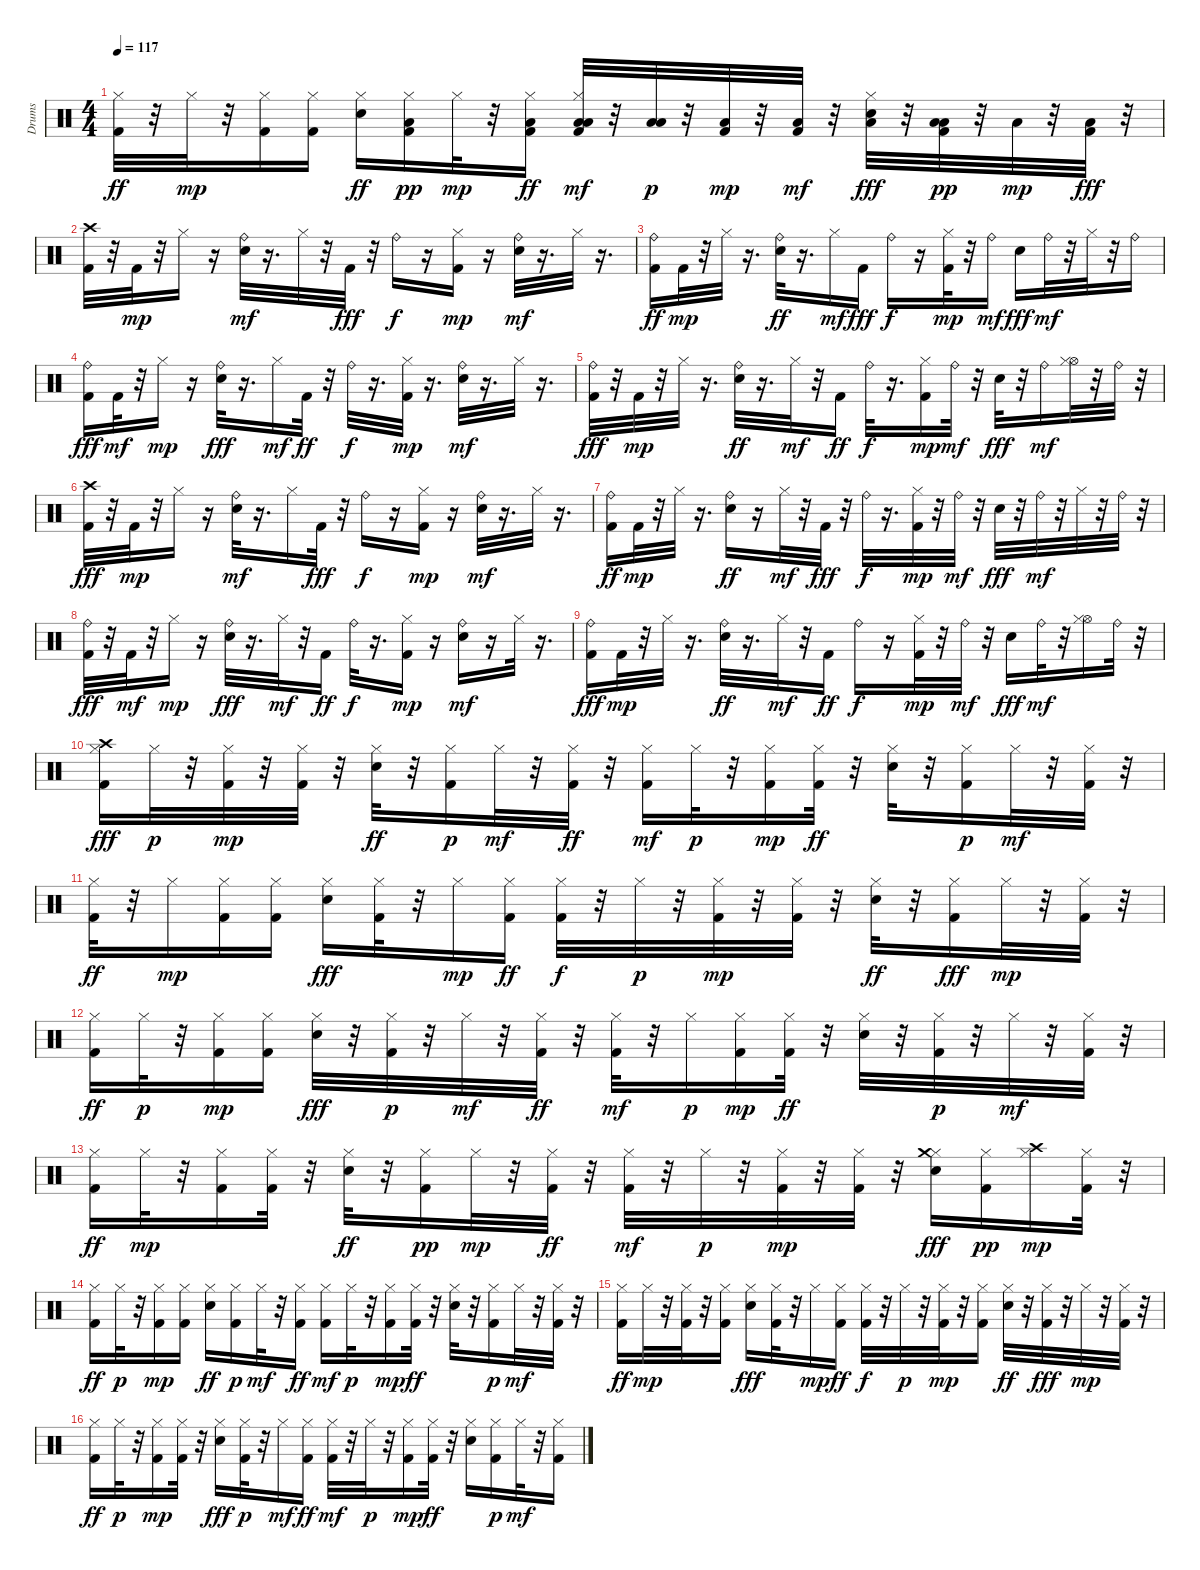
\track ("Drums" "Drums") {instrument percussion}
\staff {score}
\articulation defaults
\ts (4 4)
\tempo 117
\clef neutral
\ks c
("Kick (hit) 2" "Hi-Hat (closed)").32{dy ff} r.32 "Hi-Hat (closed)".32{dy mp} r.32 ("Kick (hit) 2" "Hi-Hat (closed)").16 ("Kick (hit) 2" "Hi-Hat (closed)").16 ("Hi-Hat (closed)" "Snare (hit) 2").16{dy ff} ("Low Tom (hit)" "Kick (hit) 2" "Hi-Hat (closed)").16{dy pp} "Hi-Hat (closed)".32{dy mp} r.32 ("Low Tom (hit)" "Kick (hit) 2" "Hi-Hat (closed)").16{dy ff} ("Kick (hit) 2" "Low Tom (hit)" "Low Tom (hit)" "Hi-Hat (closed)").32{dy mf} r.32 ("Low Tom (hit)" "Low Tom (hit)").32{dy p} r.32 ("Low Floor Tom (hit)" "Kick (hit) 2").32{dy mp} r.32 ("Low Floor Tom (hit)" "Kick (hit) 2").32{dy mf} r.32 ("Hi-Hat (closed)" "Low Floor Tom (hit)" "Snare (hit) 2").32{dy fff} r.32 ("Kick (hit) 2" "Low Floor Tom (hit)" "Low Floor Tom (hit)").32{dy pp} r.32 "Low Floor Tom (hit)".32{dy mp} r.32 ("Low Floor Tom (hit)" "Kick (hit) 2").32{dy fff} r.32 |
("Kick (hit) 2" "Crash high (hit)").32 r.32 "Kick (hit) 2".32{dy mp} r.32 "Hi-Hat (closed)".16 r.16 ("Snare (hit) 2" "Ride (bell)").32{dy mf} r.16{d} "Hi-Hat (closed)".32 r.32 "Kick (hit) 2".32{dy fff} r.32 "Ride (bell)".16{dy f} r.16 ("Kick (hit) 2" "Hi-Hat (closed)").16{dy mp} r.16 ("Snare (hit) 2" "Ride (bell)").32{dy mf} r.16{d} "Hi-Hat (closed)".32 r.16{d} |
("Kick (hit) 2" "Ride (bell)").16{dy ff} "Kick (hit) 2".32{dy mp} r.32 "Hi-Hat (closed)".32 r.16{d} ("Ride (bell)" "Snare (hit) 2").32{dy ff} r.16{d} "Hi-Hat (closed)".16{dy mf} "Kick (hit) 2".16{dy fff} "Ride (bell)".16{dy f} r.16 ("Kick (hit) 2" "Hi-Hat (closed)").32{dy mp} r.32 "Ride (bell)".16{dy mf} "Snare (hit) 2".16{dy fff} "Ride (bell)".32{dy mf} r.32 "Hi-Hat (closed)".32 r.32 "Ride (bell)".16 |
("Kick (hit) 2" "Ride (bell)").16{dy fff} "Kick (hit) 2".32{dy mf} r.32 "Hi-Hat (closed)".16{dy mp} r.16 ("Ride (bell)" "Snare (hit) 2").32{dy fff} r.16{d} "Hi-Hat (closed)".16{dy mf} "Kick (hit) 2".32{dy ff} r.32 "Ride (bell)".32{dy f} r.16{d} ("Kick (hit) 2" "Hi-Hat (closed)").32{dy mp} r.16{d} ("Snare (hit) 2" "Ride (bell)").32{dy mf} r.16{d} "Hi-Hat (closed)".32 r.16{d} |
("Kick (hit) 2" "Ride (bell)").32{dy fff} r.32 "Kick (hit) 2".32{dy mp} r.32 "Hi-Hat (closed)".32 r.16{d} ("Ride (bell)" "Snare (hit) 2").32{dy ff} r.16{d} "Hi-Hat (closed)".32{dy mf} r.32 "Kick (hit) 2".16{dy ff} "Ride (bell)".32{dy f} r.16{d} ("Kick (hit) 2" "Hi-Hat (closed)").16{dy mp} "Ride (bell)".32{dy mf} r.32 "Snare (hit) 2".32{dy fff} r.32 "Ride (bell)".16{dy mf} ("Hi-Hat (open)" "Hi-Hat (closed)").32 r.32 "Ride (bell)".32 r.32 |
("Kick (hit) 2" "Crash high (hit)").32{dy fff} r.32 "Kick (hit) 2".32{dy mp} r.32 "Hi-Hat (closed)".16 r.16 ("Snare (hit) 2" "Ride (bell)").32{dy mf} r.16{d} "Hi-Hat (closed)".16 "Kick (hit) 2".32{dy fff} r.32 "Ride (bell)".16{dy f} r.16 ("Kick (hit) 2" "Hi-Hat (closed)").16{dy mp} r.16 ("Snare (hit) 2" "Ride (bell)").32{dy mf} r.16{d} "Hi-Hat (closed)".32 r.16{d} |
("Kick (hit) 2" "Ride (bell)").16{dy ff} "Kick (hit) 2".32{dy mp} r.32 "Hi-Hat (closed)".32 r.16{d} ("Ride (bell)" "Snare (hit) 2").16{dy ff} r.16 "Hi-Hat (closed)".32{dy mf} r.32 "Kick (hit) 2".32{dy fff} r.32 "Ride (bell)".32{dy f} r.16{d} ("Kick (hit) 2" "Hi-Hat (closed)").32{dy mp} r.32 "Ride (bell)".32{dy mf} r.32 "Snare (hit) 2".32{dy fff} r.32 "Ride (bell)".32{dy mf} r.32 "Hi-Hat (closed)".32 r.32 "Ride (bell)".32 r.32 |
("Kick (hit) 2" "Ride (bell)").32{dy fff} r.32 "Kick (hit) 2".32{dy mf} r.32 "Hi-Hat (closed)".16{dy mp} r.16 ("Ride (bell)" "Snare (hit) 2").32{dy fff} r.16{d} "Hi-Hat (closed)".32{dy mf} r.32 "Kick (hit) 2".16{dy ff} "Ride (bell)".32{dy f} r.16{d} ("Kick (hit) 2" "Hi-Hat (closed)").16{dy mp} r.16 ("Snare (hit) 2" "Ride (bell)").16{dy mf} r.16 "Hi-Hat (closed)".32 r.16{d} |
("Kick (hit) 2" "Ride (bell)").16{dy fff} "Kick (hit) 2".32{dy mp} r.32 "Hi-Hat (closed)".32 r.16{d} ("Ride (bell)" "Snare (hit) 2").32{dy ff} r.16{d} "Hi-Hat (closed)".32{dy mf} r.32 "Kick (hit) 2".16{dy ff} "Ride (bell)".16{dy f} r.16 ("Kick (hit) 2" "Hi-Hat (closed)").32{dy mp} r.32 "Ride (bell)".32{dy mf} r.32 "Snare (hit) 2".16{dy fff} "Ride (bell)".32{dy mf} r.32 ("Hi-Hat (open)" "Hi-Hat (closed)").16 "Ride (bell)".32 r.32 |
("Kick (hit) 2" "Hi-Hat (closed)" "Crash high (hit)").16{dy fff} "Hi-Hat (closed)".32{dy p} r.32 ("Kick (hit) 2" "Hi-Hat (closed)").32{dy mp} r.32 ("Kick (hit) 2" "Hi-Hat (closed)").32 r.32 ("Hi-Hat (closed)" "Snare (hit) 2").32{dy ff} r.32 ("Kick (hit) 2" "Hi-Hat (closed)").16{dy p} "Hi-Hat (closed)".32{dy mf} r.32 ("Kick (hit) 2" "Hi-Hat (closed)").32{dy ff} r.32 ("Kick (hit) 2" "Hi-Hat (closed)").16{dy mf} "Hi-Hat (closed)".32{dy p} r.32 ("Kick (hit) 2" "Hi-Hat (closed)").16{dy mp} ("Kick (hit) 2" "Hi-Hat (closed)").32{dy ff} r.32 ("Hi-Hat (closed)" "Snare (hit) 2").32 r.32 ("Kick (hit) 2" "Hi-Hat (closed)").16{dy p} "Hi-Hat (closed)".32{dy mf} r.32 ("Kick (hit) 2" "Hi-Hat (closed)").32 r.32 |
("Kick (hit) 2" "Hi-Hat (closed)").32{dy ff} r.32 "Hi-Hat (closed)".16{dy mp} ("Kick (hit) 2" "Hi-Hat (closed)").16 ("Kick (hit) 2" "Hi-Hat (closed)").16 ("Hi-Hat (closed)" "Snare (hit) 2").16{dy fff} ("Hi-Hat (closed)" "Kick (hit) 2").32 r.32 "Hi-Hat (closed)".16{dy mp} ("Kick (hit) 2" "Hi-Hat (closed)").16{dy ff} ("Hi-Hat (closed)" "Kick (hit) 2").32{dy f} r.32 "Hi-Hat (closed)".32{dy p} r.32 ("Kick (hit) 2" "Hi-Hat (closed)").32{dy mp} r.32 ("Kick (hit) 2" "Hi-Hat (closed)").32 r.32 ("Hi-Hat (closed)" "Snare (hit) 2").32{dy ff} r.32 ("Hi-Hat (closed)" "Kick (hit) 2").16{dy fff} "Hi-Hat (closed)".32{dy mp} r.32 ("Kick (hit) 2" "Hi-Hat (closed)").32 r.32 |
("Kick (hit) 2" "Hi-Hat (closed)").16{dy ff} "Hi-Hat (closed)".32{dy p} r.32 ("Kick (hit) 2" "Hi-Hat (closed)").16{dy mp} ("Kick (hit) 2" "Hi-Hat (closed)").16 ("Hi-Hat (closed)" "Snare (hit) 2").32{dy fff} r.32 ("Kick (hit) 2" "Hi-Hat (closed)").32{dy p} r.32 "Hi-Hat (closed)".32{dy mf} r.32 ("Hi-Hat (closed)" "Kick (hit) 2").32{dy ff} r.32 ("Kick (hit) 2" "Hi-Hat (closed)").32{dy mf} r.32 "Hi-Hat (closed)".16{dy p} ("Kick (hit) 2" "Hi-Hat (closed)").16{dy mp} ("Kick (hit) 2" "Hi-Hat (closed)").32{dy ff} r.32 ("Hi-Hat (closed)" "Snare (hit) 2").32 r.32 ("Kick (hit) 2" "Hi-Hat (closed)").32{dy p} r.32 "Hi-Hat (closed)".32{dy mf} r.32 ("Kick (hit) 2" "Hi-Hat (closed)").32 r.32 |
("Kick (hit) 2" "Hi-Hat (closed)").16{dy ff} "Hi-Hat (closed)".32{dy mp} r.32 ("Kick (hit) 2" "Hi-Hat (closed)").16 ("Kick (hit) 2" "Hi-Hat (closed)").32 r.32 ("Hi-Hat (closed)" "Snare (hit) 2").32{dy ff} r.32 ("Kick (hit) 2" "Hi-Hat (closed)").16{dy pp} "Hi-Hat (closed)".32{dy mp} r.32 ("Kick (hit) 2" "Hi-Hat (closed)").32{dy ff} r.32 ("Kick (hit) 2" "Hi-Hat (closed)").32{dy mf} r.32 "Hi-Hat (closed)".32{dy p} r.32 ("Kick (hit) 2" "Hi-Hat (closed)").32{dy mp} r.32 ("Kick (hit) 2" "Hi-Hat (closed)").32 r.32 ("Hi-Hat (closed)" "Crash medium (hit)" "Snare (hit) 2").16{dy fff} ("Kick (hit) 2" "Hi-Hat (closed)").16{dy pp} ("Hi-Hat (closed)" "Crash high (hit)").16{dy mp} ("Kick (hit) 2" "Hi-Hat (closed)").32 r.32 |
("Kick (hit) 2" "Hi-Hat (closed)").16{dy ff} "Hi-Hat (closed)".32{dy p} r.32 ("Kick (hit) 2" "Hi-Hat (closed)").16{dy mp} ("Kick (hit) 2" "Hi-Hat (closed)").16 ("Hi-Hat (closed)" "Snare (hit) 2").16{dy ff} ("Kick (hit) 2" "Hi-Hat (closed)").16{dy p} "Hi-Hat (closed)".32{dy mf} r.32 ("Kick (hit) 2" "Hi-Hat (closed)").16{dy ff} ("Kick (hit) 2" "Hi-Hat (closed)").16{dy mf} "Hi-Hat (closed)".32{dy p} r.32 ("Kick (hit) 2" "Hi-Hat (closed)").16{dy mp} ("Kick (hit) 2" "Hi-Hat (closed)").32{dy ff} r.32 ("Hi-Hat (closed)" "Snare (hit) 2").32 r.32 ("Kick (hit) 2" "Hi-Hat (closed)").16{dy p} "Hi-Hat (closed)".32{dy mf} r.32 ("Kick (hit) 2" "Hi-Hat (closed)").32 r.32 |
("Kick (hit) 2" "Hi-Hat (closed)").16{dy ff} "Hi-Hat (closed)".32{dy mp} r.32 ("Kick (hit) 2" "Hi-Hat (closed)").32 r.32 ("Kick (hit) 2" "Hi-Hat (closed)").16 ("Hi-Hat (closed)" "Snare (hit) 2").16{dy fff} ("Hi-Hat (closed)" "Kick (hit) 2").32 r.32 "Hi-Hat (closed)".16{dy mp} ("Kick (hit) 2" "Hi-Hat (closed)").16{dy ff} ("Hi-Hat (closed)" "Kick (hit) 2").32{dy f} r.32 "Hi-Hat (closed)".32{dy p} r.32 ("Kick (hit) 2" "Hi-Hat (closed)").32{dy mp} r.32 ("Kick (hit) 2" "Hi-Hat (closed)").16 ("Hi-Hat (closed)" "Snare (hit) 2").32{dy ff} r.32 ("Hi-Hat (closed)" "Kick (hit) 2").32{dy fff} r.32 "Hi-Hat (closed)".32{dy mp} r.32 ("Kick (hit) 2" "Hi-Hat (closed)").32 r.32 |
("Kick (hit) 2" "Hi-Hat (closed)").16{dy ff} "Hi-Hat (closed)".32{dy p} r.32 ("Kick (hit) 2" "Hi-Hat (closed)").16{dy mp} ("Kick (hit) 2" "Hi-Hat (closed)").32 r.32 ("Hi-Hat (closed)" "Snare (hit) 2").16{dy fff} ("Kick (hit) 2" "Hi-Hat (closed)").32{dy p} r.32 "Hi-Hat (closed)".16{dy mf} ("Hi-Hat (closed)" "Kick (hit) 2").16{dy ff} ("Kick (hit) 2" "Hi-Hat (closed)").32{dy mf} r.32 "Hi-Hat (closed)".32{dy p} r.32 ("Kick (hit) 2" "Hi-Hat (closed)").16{dy mp} ("Kick (hit) 2" "Hi-Hat (closed)").32{dy ff} r.32 ("Hi-Hat (closed)" "Snare (hit) 2").16 ("Kick (hit) 2" "Hi-Hat (closed)").16{dy p} "Hi-Hat (closed)".32{dy mf} r.32 ("Kick (hit) 2" "Hi-Hat (closed)").16
